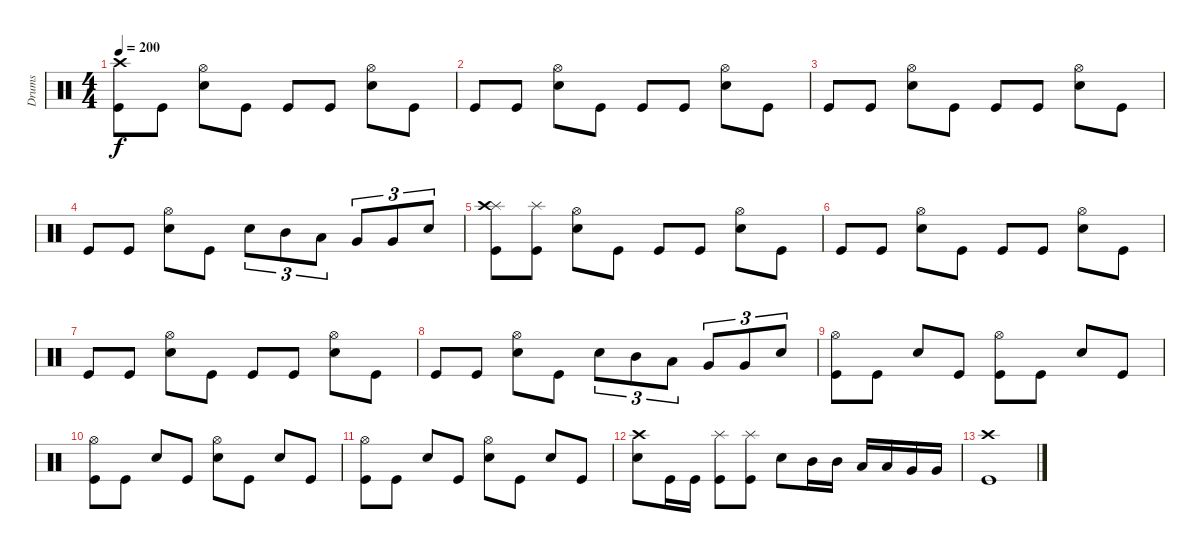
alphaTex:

\track ("Drums" "Drums") {instrument percussion}
\staff {score}
\articulation defaults
\ts (4 4)
\tempo 200
\clef neutral
\ks c
("Kick (hit)" "Crash high (hit)").8{dy f} "Kick (hit)".8 ("Hi-Hat (open)" "Electric Snare (hit)").8 "Kick (hit)".8 "Kick (hit)".8 "Kick (hit)".8 ("Hi-Hat (open)" "Electric Snare (hit)").8 "Kick (hit)".8 |
"Kick (hit)".8 "Kick (hit)".8 ("Hi-Hat (open)" "Electric Snare (hit)").8 "Kick (hit)".8 "Kick (hit)".8 "Kick (hit)".8 ("Hi-Hat (open)" "Electric Snare (hit)").8 "Kick (hit)".8 |
"Kick (hit)".8 "Kick (hit)".8 ("Hi-Hat (open)" "Electric Snare (hit)").8 "Kick (hit)".8 "Kick (hit)".8 "Kick (hit)".8 ("Hi-Hat (open)" "Electric Snare (hit)").8 "Kick (hit)".8 |
"Kick (hit)".8 "Kick (hit)".8 ("Hi-Hat (open)" "Electric Snare (hit)").8 "Kick (hit)".8 "Electric Snare (hit)".8{tu (3 2)} "Mid Tom (hit)".8{tu (3 2)} "Low Tom (hit)".8{tu (3 2)} "Very Low Tom (hit)".8{tu (3 2)} "Very Low Tom (hit)".8{tu (3 2)} "Electric Snare (hit)".8{tu (3 2)} |
("Splash (hit)" "Kick (hit)" "Crash high (hit)").8 ("Splash (hit)" "Kick (hit)").8 ("Hi-Hat (open)" "Electric Snare (hit)").8 "Kick (hit)".8 "Kick (hit)".8 "Kick (hit)".8 ("Hi-Hat (open)" "Electric Snare (hit)").8 "Kick (hit)".8 |
"Kick (hit)".8 "Kick (hit)".8 ("Hi-Hat (open)" "Electric Snare (hit)").8 "Kick (hit)".8 "Kick (hit)".8 "Kick (hit)".8 ("Hi-Hat (open)" "Electric Snare (hit)").8 "Kick (hit)".8 |
"Kick (hit)".8 "Kick (hit)".8 ("Hi-Hat (open)" "Electric Snare (hit)").8 "Kick (hit)".8 "Kick (hit)".8 "Kick (hit)".8 ("Hi-Hat (open)" "Electric Snare (hit)").8 "Kick (hit)".8 |
"Kick (hit)".8 "Kick (hit)".8 ("Hi-Hat (open)" "Electric Snare (hit)").8 "Kick (hit)".8 "Electric Snare (hit)".8{tu (3 2)} "Mid Tom (hit)".8{tu (3 2)} "Low Tom (hit)".8{tu (3 2)} "Very Low Tom (hit)".8{tu (3 2)} "Very Low Tom (hit)".8{tu (3 2)} "Electric Snare (hit)".8{tu (3 2)} |
("Hi-Hat (open)" "Kick (hit)").8 "Kick (hit)".8 "Electric Snare (hit)".8 "Kick (hit)".8 ("Hi-Hat (open)" "Kick (hit)").8 "Kick (hit)".8 "Electric Snare (hit)".8 "Kick (hit)".8 |
("Hi-Hat (open)" "Kick (hit)").8 "Kick (hit)".8 "Electric Snare (hit)".8 "Kick (hit)".8 ("Hi-Hat (open)" "Electric Snare (hit)").8 "Kick (hit)".8 "Electric Snare (hit)".8 "Kick (hit)".8 |
("Hi-Hat (open)" "Kick (hit)").8 "Kick (hit)".8 "Electric Snare (hit)".8 "Kick (hit)".8 ("Electric Snare (hit)" "Hi-Hat (open)").8 "Kick (hit)".8 "Electric Snare (hit)".8 "Kick (hit)".8 |
("Crash high (hit)" "Electric Snare (hit)").8 "Kick (hit)".16 "Kick (hit)".16 ("Splash (hit)" "Kick (hit)").8 ("Splash (hit)" "Kick (hit)").8 "Electric Snare (hit)".8 "Mid Tom (hit)".16 "Mid Tom (hit)".16 "Low Tom (hit)".16 "Low Tom (hit)".16 "Very Low Tom (hit)".16 "Very Low Tom (hit)".16 |
("Crash high (hit)" "Kick (hit)").1
